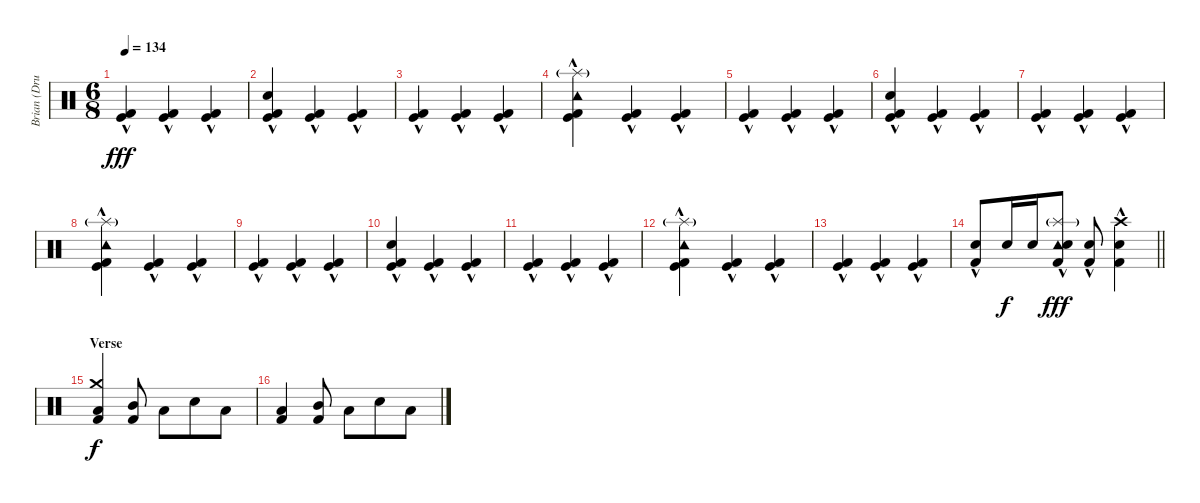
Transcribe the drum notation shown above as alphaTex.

\track ("Brian (Drums)" "Brian (Dru") {instrument percussion}
\staff {score}
\articulation defaults
\ts (6 8)
\tempo 134
\clef neutral
\ks c
("Kick (hit)" "Kick (hit) 2"{hac}).4{dy fff} ("Kick (hit)" "Kick (hit) 2"{hac}).4 ("Kick (hit)" "Kick (hit) 2"{hac}).4 |
("Snare (hit) 2" "Kick (hit)" "Kick (hit) 2"{hac}).4 ("Kick (hit)" "Kick (hit) 2"{hac}).4 ("Kick (hit)" "Kick (hit) 2"{hac}).4 |
("Kick (hit)" "Kick (hit) 2"{hac}).4 ("Kick (hit)" "Kick (hit) 2"{hac}).4 ("Kick (hit)" "Kick (hit) 2"{hac}).4 |
("Tambourine (hit)" "Splash (hit)"{g} "Kick (hit)" "Kick (hit) 2"{hac}).4 ("Kick (hit)" "Kick (hit) 2"{hac}).4 ("Kick (hit)" "Kick (hit) 2"{hac}).4 |
("Kick (hit)" "Kick (hit) 2"{hac}).4 ("Kick (hit)" "Kick (hit) 2"{hac}).4 ("Kick (hit)" "Kick (hit) 2"{hac}).4 |
("Snare (hit) 2" "Kick (hit)" "Kick (hit) 2"{hac}).4 ("Kick (hit)" "Kick (hit) 2"{hac}).4 ("Kick (hit)" "Kick (hit) 2"{hac}).4 |
("Kick (hit)" "Kick (hit) 2"{hac}).4 ("Kick (hit)" "Kick (hit) 2"{hac}).4 ("Kick (hit)" "Kick (hit) 2"{hac}).4 |
("Tambourine (hit)" "Splash (hit)"{g} "Kick (hit)" "Kick (hit) 2"{hac}).4 ("Kick (hit)" "Kick (hit) 2"{hac}).4 ("Kick (hit)" "Kick (hit) 2"{hac}).4 |
("Kick (hit)" "Kick (hit) 2"{hac}).4 ("Kick (hit)" "Kick (hit) 2"{hac}).4 ("Kick (hit)" "Kick (hit) 2"{hac}).4 |
("Snare (hit) 2" "Kick (hit)" "Kick (hit) 2"{hac}).4 ("Kick (hit)" "Kick (hit) 2"{hac}).4 ("Kick (hit)" "Kick (hit) 2"{hac}).4 |
("Kick (hit)" "Kick (hit) 2"{hac}).4 ("Kick (hit)" "Kick (hit) 2"{hac}).4 ("Kick (hit)" "Kick (hit) 2"{hac}).4 |
("Tambourine (hit)" "Splash (hit)"{g} "Kick (hit)" "Kick (hit) 2"{hac}).4 ("Kick (hit)" "Kick (hit) 2"{hac}).4 ("Kick (hit)" "Kick (hit) 2"{hac}).4 |
("Kick (hit)" "Kick (hit) 2"{hac}).4 ("Kick (hit)" "Kick (hit) 2"{hac}).4 ("Kick (hit)" "Kick (hit) 2"{hac}).4 |
\barLineRight lightlight
("Electric Snare (hit)" "Kick (hit) 2"{hac}).8 "Electric Snare (hit)".16{dy f} "Electric Snare (hit)".16 ("Tambourine (hit)" "Splash (hit)"{g} "Electric Snare (hit)" "Kick (hit) 2"{hac}).8{dy fff} ("Electric Snare (hit)" "Kick (hit) 2"{hac}).8 ("Crash high (hit)" "Electric Snare (hit)" "Kick (hit) 2"{hac}).4 |
\section ("" "Verse")
("Crash medium (hit)" "Low Tom (hit)" "Kick (hit) 2").4{dy f} ("Mid Tom (hit)" "Kick (hit) 2").8 "Low Tom (hit)".8 "Electric Snare (hit)".8 "Low Tom (hit)".8 |
("Low Tom (hit)" "Kick (hit) 2").4 ("Mid Tom (hit)" "Kick (hit) 2").8 "Low Tom (hit)".8 "Electric Snare (hit)".8 "Low Tom (hit)".8
